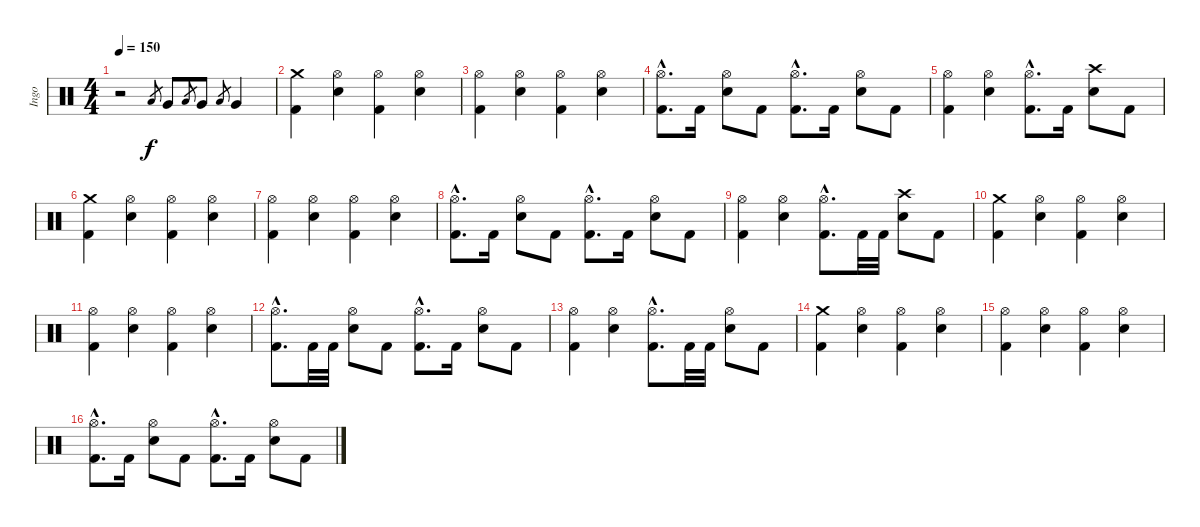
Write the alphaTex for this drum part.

\track ("Ingo" "Ingo") {instrument percussion}
\staff {score}
\articulation defaults
\ts (4 4)
\tempo 150
\clef neutral
\ks c
r.2{dy f} "Low Floor Tom (hit)".8{gr} "Very Low Tom (hit)".8 "Low Floor Tom (hit)".8{gr} "Very Low Tom (hit)".8 "Low Floor Tom (hit)".8{gr} "Very Low Tom (hit)".4 |
("Crash medium (hit)" "Kick (hit) 2").4 ("Hi-Hat (open)" "Electric Snare (hit)").4 ("Hi-Hat (open)" "Kick (hit) 2").4 ("Hi-Hat (open)" "Electric Snare (hit)").4 |
("Hi-Hat (open)" "Kick (hit) 2").4 ("Hi-Hat (open)" "Electric Snare (hit)").4 ("Hi-Hat (open)" "Kick (hit) 2").4 ("Hi-Hat (open)" "Electric Snare (hit)").4 |
("Hi-Hat (open)"{hac} "Kick (hit) 2"{hac}).8{d} "Kick (hit) 2".16 ("Hi-Hat (open)" "Electric Snare (hit)").8 "Kick (hit) 2".8 ("Hi-Hat (open)"{hac} "Kick (hit) 2"{hac}).8{d} "Kick (hit) 2".16 ("Hi-Hat (open)" "Electric Snare (hit)").8 "Kick (hit) 2".8 |
("Hi-Hat (open)" "Kick (hit) 2").4 ("Hi-Hat (open)" "Electric Snare (hit)").4 ("Hi-Hat (open)"{hac} "Kick (hit) 2"{hac}).8{d} "Kick (hit) 2".16 ("Crash high (hit)" "Electric Snare (hit)").8 "Kick (hit) 2".8 |
("Crash medium (hit)" "Kick (hit) 2").4 ("Hi-Hat (open)" "Electric Snare (hit)").4 ("Hi-Hat (open)" "Kick (hit) 2").4 ("Hi-Hat (open)" "Electric Snare (hit)").4 |
("Hi-Hat (open)" "Kick (hit) 2").4 ("Hi-Hat (open)" "Electric Snare (hit)").4 ("Hi-Hat (open)" "Kick (hit) 2").4 ("Hi-Hat (open)" "Electric Snare (hit)").4 |
("Hi-Hat (open)"{hac} "Kick (hit) 2"{hac}).8{d} "Kick (hit) 2".16 ("Hi-Hat (open)" "Electric Snare (hit)").8 "Kick (hit) 2".8 ("Hi-Hat (open)"{hac} "Kick (hit) 2"{hac}).8{d} "Kick (hit) 2".16 ("Hi-Hat (open)" "Electric Snare (hit)").8 "Kick (hit) 2".8 |
("Hi-Hat (open)" "Kick (hit) 2").4 ("Hi-Hat (open)" "Electric Snare (hit)").4 ("Hi-Hat (open)"{hac} "Kick (hit) 2"{hac}).8{d} "Kick (hit) 2".32 "Kick (hit) 2".32 ("Crash high (hit)" "Electric Snare (hit)").8 "Kick (hit) 2".8 |
("Crash medium (hit)" "Kick (hit) 2").4 ("Hi-Hat (open)" "Electric Snare (hit)").4 ("Hi-Hat (open)" "Kick (hit) 2").4 ("Hi-Hat (open)" "Electric Snare (hit)").4 |
("Hi-Hat (open)" "Kick (hit) 2").4 ("Hi-Hat (open)" "Electric Snare (hit)").4 ("Hi-Hat (open)" "Kick (hit) 2").4 ("Hi-Hat (open)" "Electric Snare (hit)").4 |
("Hi-Hat (open)"{hac} "Kick (hit) 2"{hac}).8{d} "Kick (hit) 2".32 "Kick (hit) 2".32 ("Hi-Hat (open)" "Electric Snare (hit)").8 "Kick (hit) 2".8 ("Hi-Hat (open)"{hac} "Kick (hit) 2"{hac}).8{d} "Kick (hit) 2".16 ("Hi-Hat (open)" "Electric Snare (hit)").8 "Kick (hit) 2".8 |
("Hi-Hat (open)" "Kick (hit) 2").4 ("Hi-Hat (open)" "Electric Snare (hit)").4 ("Hi-Hat (open)"{hac} "Kick (hit) 2"{hac}).8{d} "Kick (hit) 2".32 "Kick (hit) 2".32 ("Hi-Hat (open)" "Electric Snare (hit)").8 "Kick (hit) 2".8 |
("Crash medium (hit)" "Kick (hit) 2").4 ("Hi-Hat (open)" "Electric Snare (hit)").4 ("Hi-Hat (open)" "Kick (hit) 2").4 ("Hi-Hat (open)" "Electric Snare (hit)").4 |
("Hi-Hat (open)" "Kick (hit) 2").4 ("Hi-Hat (open)" "Electric Snare (hit)").4 ("Hi-Hat (open)" "Kick (hit) 2").4 ("Hi-Hat (open)" "Electric Snare (hit)").4 |
("Hi-Hat (open)"{hac} "Kick (hit) 2"{hac}).8{d} "Kick (hit) 2".16 ("Hi-Hat (open)" "Electric Snare (hit)").8 "Kick (hit) 2".8 ("Hi-Hat (open)"{hac} "Kick (hit) 2"{hac}).8{d} "Kick (hit) 2".16 ("Hi-Hat (open)" "Electric Snare (hit)").8 "Kick (hit) 2".8
